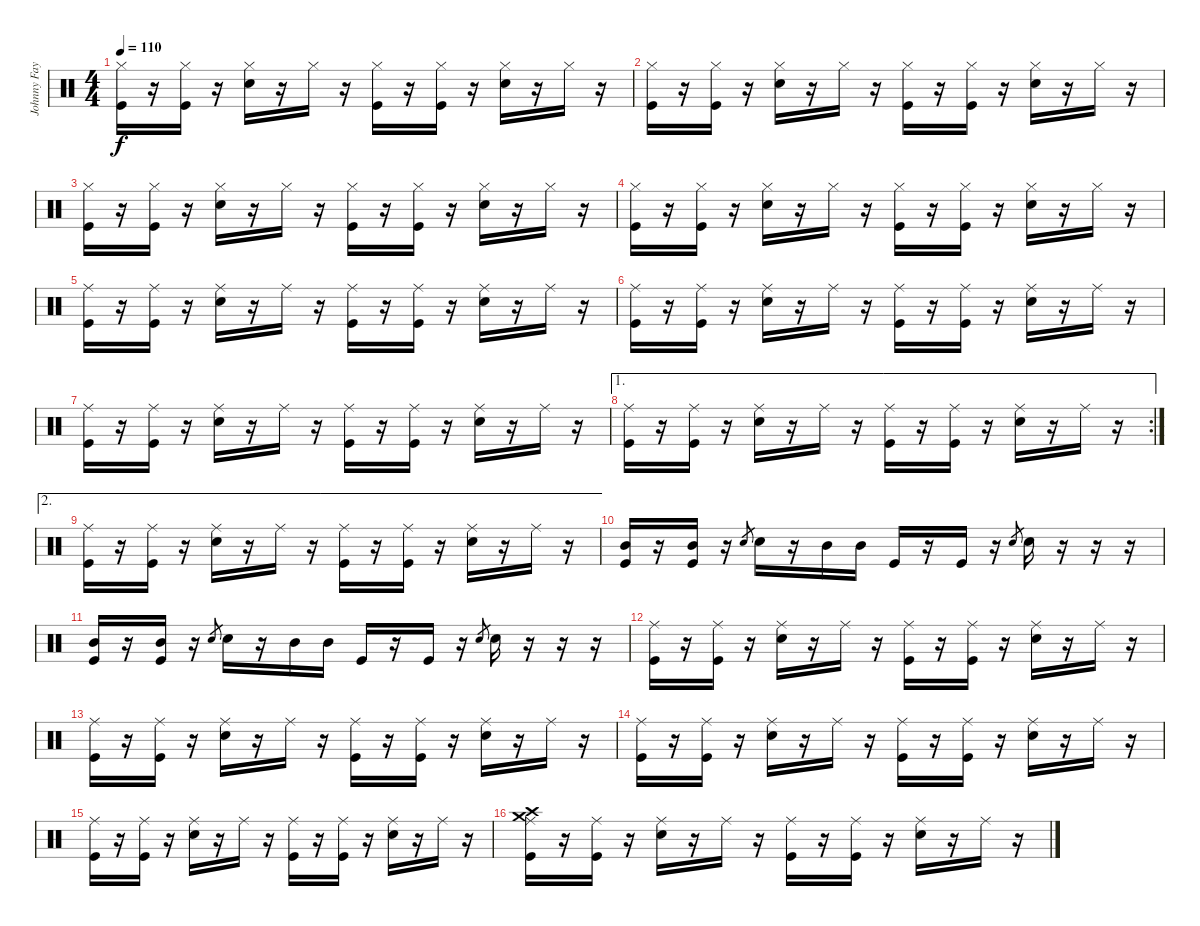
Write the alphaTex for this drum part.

\track ("Johnny Fay" "Johnny Fay") {instrument percussion}
\staff {score}
\articulation defaults
\ts (4 4)
\tempo 110
\clef neutral
\ks c
("Kick (hit)" "Hi-Hat (closed)").16{dy f} r.16 ("Kick (hit)" "Hi-Hat (closed)").16 r.16 ("Snare (hit) 2" "Hi-Hat (closed)").16 r.16 "Hi-Hat (closed)".16 r.16 ("Kick (hit)" "Hi-Hat (closed)").16 r.16 ("Kick (hit)" "Hi-Hat (closed)").16 r.16 ("Snare (hit) 2" "Hi-Hat (closed)").16 r.16 "Hi-Hat (closed)".16 r.16 |
("Kick (hit)" "Hi-Hat (closed)").16 r.16 ("Kick (hit)" "Hi-Hat (closed)").16 r.16 ("Snare (hit) 2" "Hi-Hat (closed)").16 r.16 "Hi-Hat (closed)".16 r.16 ("Kick (hit)" "Hi-Hat (closed)").16 r.16 ("Kick (hit)" "Hi-Hat (closed)").16 r.16 ("Snare (hit) 2" "Hi-Hat (closed)").16 r.16 "Hi-Hat (closed)".16 r.16 |
("Kick (hit)" "Hi-Hat (closed)").16 r.16 ("Kick (hit)" "Hi-Hat (closed)").16 r.16 ("Snare (hit) 2" "Hi-Hat (closed)").16 r.16 "Hi-Hat (closed)".16 r.16 ("Kick (hit)" "Hi-Hat (closed)").16 r.16 ("Kick (hit)" "Hi-Hat (closed)").16 r.16 ("Snare (hit) 2" "Hi-Hat (closed)").16 r.16 "Hi-Hat (closed)".16 r.16 |
("Kick (hit)" "Hi-Hat (closed)").16 r.16 ("Kick (hit)" "Hi-Hat (closed)").16 r.16 ("Snare (hit) 2" "Hi-Hat (closed)").16 r.16 "Hi-Hat (closed)".16 r.16 ("Kick (hit)" "Hi-Hat (closed)").16 r.16 ("Kick (hit)" "Hi-Hat (closed)").16 r.16 ("Snare (hit) 2" "Hi-Hat (closed)").16 r.16 "Hi-Hat (closed)".16 r.16 |
("Kick (hit)" "Ride (middle)").16 r.16 ("Kick (hit)" "Ride (middle)").16 r.16 ("Snare (hit) 2" "Ride (middle)").16 r.16 "Ride (middle)".16 r.16 ("Kick (hit)" "Ride (middle)").16 r.16 ("Kick (hit)" "Ride (middle)").16 r.16 ("Snare (hit) 2" "Ride (middle)").16 r.16 "Ride (middle)".16 r.16 |
("Kick (hit)" "Ride (middle)").16 r.16 ("Kick (hit)" "Ride (middle)").16 r.16 ("Snare (hit) 2" "Ride (middle)").16 r.16 "Ride (middle)".16 r.16 ("Kick (hit)" "Ride (middle)").16 r.16 ("Kick (hit)" "Ride (middle)").16 r.16 ("Snare (hit) 2" "Ride (middle)").16 r.16 "Ride (middle)".16 r.16 |
("Kick (hit)" "Ride (middle)").16 r.16 ("Kick (hit)" "Ride (middle)").16 r.16 ("Snare (hit) 2" "Ride (middle)").16 r.16 "Ride (middle)".16 r.16 ("Kick (hit)" "Ride (middle)").16 r.16 ("Kick (hit)" "Ride (middle)").16 r.16 ("Snare (hit) 2" "Ride (middle)").16 r.16 "Ride (middle)".16 r.16 |
\ae 1
\rc 2
("Kick (hit)" "Ride (middle)").16 r.16 ("Kick (hit)" "Ride (middle)").16 r.16 ("Snare (hit) 2" "Ride (middle)").16 r.16 "Ride (middle)".16 r.16 ("Kick (hit)" "Ride (middle)").16 r.16 ("Kick (hit)" "Ride (middle)").16 r.16 ("Snare (hit) 2" "Ride (middle)").16 r.16 "Ride (middle)".16 r.16 |
\ae 2
("Kick (hit)" "Ride (middle)").16 r.16 ("Kick (hit)" "Ride (middle)").16 r.16 ("Snare (hit) 2" "Ride (middle)").16 r.16 "Ride (middle)".16 r.16 ("Kick (hit)" "Ride (middle)").16 r.16 ("Kick (hit)" "Ride (middle)").16 r.16 ("Snare (hit) 2" "Ride (middle)").16 r.16 "Ride (middle)".16 r.16 |
("Kick (hit)" "Mid Tom (hit)").16 r.16 ("Kick (hit)" "Mid Tom (hit)").16 r.16 "Snare (hit) 2".8{gr} "Snare (hit) 2".16 r.16 "Mid Tom (hit)".16 "Mid Tom (hit)".16 "Kick (hit)".16 r.16 "Kick (hit)".16 r.16 "Snare (hit) 2".8{gr} "Snare (hit) 2".16 r.16 r.16 r.16 |
("Kick (hit)" "Mid Tom (hit)").16 r.16 ("Kick (hit)" "Mid Tom (hit)").16 r.16 "Snare (hit) 2".8{gr} "Snare (hit) 2".16 r.16 "Mid Tom (hit)".16 "Mid Tom (hit)".16 "Kick (hit)".16 r.16 "Kick (hit)".16 r.16 "Snare (hit) 2".8{gr} "Snare (hit) 2".16 r.16 r.16 r.16 |
("Kick (hit)" "Ride (middle)").16 r.16 ("Kick (hit)" "Ride (middle)").16 r.16 ("Snare (hit) 2" "Ride (middle)").16 r.16 "Ride (middle)".16 r.16 ("Kick (hit)" "Ride (middle)").16 r.16 ("Kick (hit)" "Ride (middle)").16 r.16 ("Snare (hit) 2" "Ride (middle)").16 r.16 "Ride (middle)".16 r.16 |
("Kick (hit)" "Ride (middle)").16 r.16 ("Kick (hit)" "Ride (middle)").16 r.16 ("Snare (hit) 2" "Ride (middle)").16 r.16 "Ride (middle)".16 r.16 ("Kick (hit)" "Ride (middle)").16 r.16 ("Kick (hit)" "Ride (middle)").16 r.16 ("Snare (hit) 2" "Ride (middle)").16 r.16 "Ride (middle)".16 r.16 |
("Kick (hit)" "Ride (middle)").16 r.16 ("Kick (hit)" "Ride (middle)").16 r.16 ("Snare (hit) 2" "Ride (middle)").16 r.16 "Ride (middle)".16 r.16 ("Kick (hit)" "Ride (middle)").16 r.16 ("Kick (hit)" "Ride (middle)").16 r.16 ("Snare (hit) 2" "Ride (middle)").16 r.16 "Ride (middle)".16 r.16 |
("Kick (hit)" "Ride (middle)").16 r.16 ("Kick (hit)" "Ride (middle)").16 r.16 ("Snare (hit) 2" "Ride (middle)").16 r.16 "Ride (middle)".16 r.16 ("Kick (hit)" "Ride (middle)").16 r.16 ("Kick (hit)" "Ride (middle)").16 r.16 ("Snare (hit) 2" "Ride (middle)").16 r.16 "Ride (middle)".16 r.16 |
("Kick (hit)" "Ride (middle)" "Crash medium (hit)" "Crash high (hit)").16 r.16 ("Kick (hit)" "Ride (middle)").16 r.16 ("Snare (hit) 2" "Ride (middle)").16 r.16 "Ride (middle)".16 r.16 ("Kick (hit)" "Ride (middle)").16 r.16 ("Kick (hit)" "Ride (middle)").16 r.16 ("Snare (hit) 2" "Ride (middle)").16 r.16 "Ride (middle)".16 r.16
